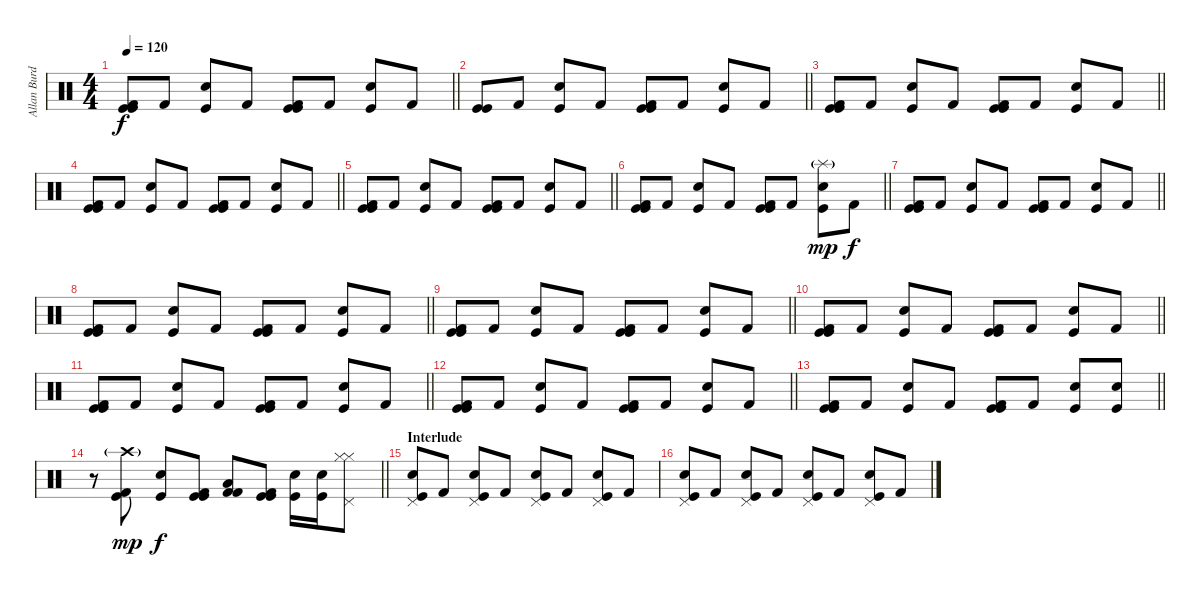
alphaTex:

\track ("Allan Burdeos(Drums)" "Allan Burd") {instrument percussion}
\staff {score}
\articulation defaults
\ts (4 4)
\tempo 120
\clef neutral
\barLineRight lightlight
\ks c
("Kick (hit)" "Kick (hit)" "Kick (hit) 2").8{bd 60 dy f} "Kick (hit) 2".8 ("Kick (hit)" "Electric Snare (hit)").8 "Kick (hit) 2".8 ("Kick (hit)" "Kick (hit)" "Kick (hit) 2").8 "Kick (hit) 2".8 ("Kick (hit)" "Electric Snare (hit)").8 "Kick (hit) 2".8 |
\barLineRight lightlight
("Kick (hit)" "Kick (hit)").8 "Kick (hit) 2".8 ("Kick (hit)" "Electric Snare (hit)").8 "Kick (hit) 2".8 ("Kick (hit)" "Kick (hit)" "Kick (hit) 2").8 "Kick (hit) 2".8 ("Kick (hit)" "Electric Snare (hit)").8 "Kick (hit) 2".8 |
\barLineRight lightlight
("Kick (hit)" "Kick (hit)" "Kick (hit) 2").8 "Kick (hit) 2".8 ("Kick (hit)" "Electric Snare (hit)").8 "Kick (hit) 2".8 ("Kick (hit)" "Kick (hit)" "Kick (hit) 2").8 "Kick (hit) 2".8 ("Kick (hit)" "Electric Snare (hit)").8 "Kick (hit) 2".8 |
\barLineRight lightlight
("Kick (hit)" "Kick (hit)" "Kick (hit) 2").8 "Kick (hit) 2".8 ("Kick (hit)" "Electric Snare (hit)").8 "Kick (hit) 2".8 ("Kick (hit)" "Kick (hit)" "Kick (hit) 2").8 "Kick (hit) 2".8 ("Kick (hit)" "Electric Snare (hit)").8 "Kick (hit) 2".8 |
\barLineRight lightlight
("Kick (hit)" "Kick (hit)" "Kick (hit) 2").8 "Kick (hit) 2".8 ("Kick (hit)" "Electric Snare (hit)").8 "Kick (hit) 2".8 ("Kick (hit)" "Kick (hit)" "Kick (hit) 2").8 "Kick (hit) 2".8 ("Kick (hit)" "Electric Snare (hit)").8 "Kick (hit) 2".8 |
\barLineRight lightlight
("Kick (hit)" "Kick (hit)" "Kick (hit) 2").8 "Kick (hit) 2".8 ("Kick (hit)" "Electric Snare (hit)").8 "Kick (hit) 2".8 ("Kick (hit)" "Kick (hit)" "Kick (hit) 2").8 "Kick (hit) 2".8 ("Kick (hit)" "Electric Snare (hit)" "Splash (hit)"{g}).8{dy mp} "Kick (hit) 2".8{dy f} |
\barLineRight lightlight
("Kick (hit)" "Kick (hit)" "Kick (hit) 2").8 "Kick (hit) 2".8 ("Kick (hit)" "Electric Snare (hit)").8 "Kick (hit) 2".8 ("Kick (hit)" "Kick (hit)" "Kick (hit) 2").8 "Kick (hit) 2".8 ("Kick (hit)" "Electric Snare (hit)").8 "Kick (hit) 2".8 |
\barLineRight lightlight
("Kick (hit)" "Kick (hit)" "Kick (hit) 2").8 "Kick (hit) 2".8 ("Kick (hit)" "Electric Snare (hit)").8 "Kick (hit) 2".8 ("Kick (hit)" "Kick (hit)" "Kick (hit) 2").8 "Kick (hit) 2".8 ("Kick (hit)" "Electric Snare (hit)").8 "Kick (hit) 2".8 |
\barLineRight lightlight
("Kick (hit)" "Kick (hit)" "Kick (hit) 2").8 "Kick (hit) 2".8 ("Kick (hit)" "Electric Snare (hit)").8 "Kick (hit) 2".8 ("Kick (hit)" "Kick (hit)" "Kick (hit) 2").8 "Kick (hit) 2".8 ("Kick (hit)" "Electric Snare (hit)").8 "Kick (hit) 2".8 |
\barLineRight lightlight
("Kick (hit)" "Kick (hit)" "Kick (hit) 2").8 "Kick (hit) 2".8 ("Kick (hit)" "Electric Snare (hit)").8 "Kick (hit) 2".8 ("Kick (hit)" "Kick (hit)" "Kick (hit) 2").8 "Kick (hit) 2".8 ("Kick (hit)" "Electric Snare (hit)").8 "Kick (hit) 2".8 |
\barLineRight lightlight
("Kick (hit)" "Kick (hit)" "Kick (hit) 2").8 "Kick (hit) 2".8 ("Kick (hit)" "Electric Snare (hit)").8 "Kick (hit) 2".8 ("Kick (hit)" "Kick (hit)" "Kick (hit) 2").8 "Kick (hit) 2".8 ("Kick (hit)" "Electric Snare (hit)").8 "Kick (hit) 2".8 |
\barLineRight lightlight
("Kick (hit)" "Kick (hit)" "Kick (hit) 2").8 "Kick (hit) 2".8 ("Kick (hit)" "Electric Snare (hit)").8 "Kick (hit) 2".8 ("Kick (hit)" "Kick (hit)" "Kick (hit) 2").8 "Kick (hit) 2".8 ("Kick (hit)" "Electric Snare (hit)").8 "Kick (hit) 2".8 |
\barLineRight lightlight
("Kick (hit)" "Kick (hit)" "Kick (hit) 2").8{bd 60} "Kick (hit) 2".8 ("Kick (hit)" "Electric Snare (hit)").8 "Kick (hit) 2".8 ("Kick (hit)" "Kick (hit)" "Kick (hit) 2").8 "Kick (hit) 2".8 ("Kick (hit)" "Electric Snare (hit)").8 ("Kick (hit)" "Electric Snare (hit)").8 |
\barLineRight lightlight
r.8 ("Crash high (hit)"{g} "Kick (hit) 2" "Kick (hit)").8{dy mp} ("Kick (hit)" "Electric Snare (hit)").8{dy f} ("Kick (hit)" "Kick (hit)" "Kick (hit) 2").8 ("Kick (hit) 2" "Kick (hit) 2" "Low Tom (hit)").8 ("Kick (hit)" "Kick (hit)" "Kick (hit) 2").8 ("Kick (hit)" "Electric Snare (hit)").16 ("Kick (hit)" "Electric Snare (hit)").16 ("Hi-Hat (closed)" "Hi-Hat (closed)" "Pedal Hi-Hat (hit)").8 |
\section ("" "Interlude")
("Pedal Hi-Hat (hit)" "Kick (hit)" "Electric Snare (hit)").8 "Kick (hit) 2".8 ("Pedal Hi-Hat (hit)" "Kick (hit)" "Electric Snare (hit)").8 "Kick (hit) 2".8 ("Pedal Hi-Hat (hit)" "Kick (hit)" "Electric Snare (hit)").8 "Kick (hit) 2".8 ("Pedal Hi-Hat (hit)" "Kick (hit)" "Electric Snare (hit)").8 "Kick (hit) 2".8 |
("Pedal Hi-Hat (hit)" "Kick (hit)" "Electric Snare (hit)").8 "Kick (hit) 2".8 ("Pedal Hi-Hat (hit)" "Kick (hit)" "Electric Snare (hit)").8 "Kick (hit) 2".8 ("Pedal Hi-Hat (hit)" "Kick (hit)" "Electric Snare (hit)").8 "Kick (hit) 2".8 ("Pedal Hi-Hat (hit)" "Kick (hit)" "Electric Snare (hit)").8 "Kick (hit) 2".8
